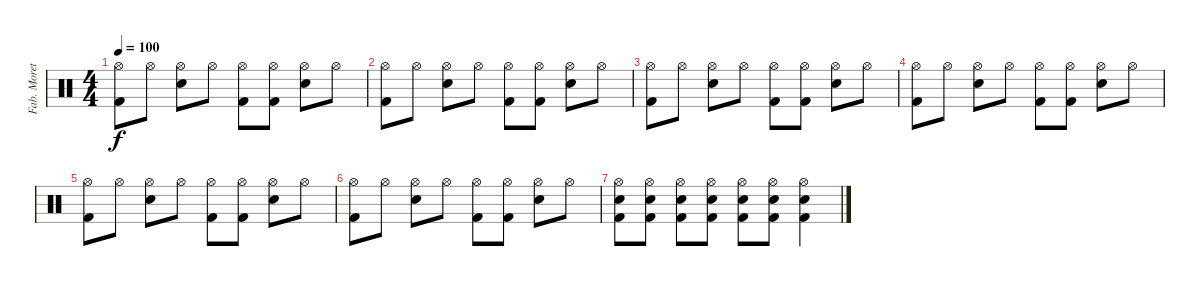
\track ("Fab. Moretti" "Fab. Moret") {instrument percussion}
\staff {score}
\articulation defaults
\ts (4 4)
\tempo 100
\clef neutral
\ks c
("Hi-Hat (open)" "Kick (hit) 2").8{dy f} "Hi-Hat (open)".8 ("Hi-Hat (open)" "Electric Snare (hit)").8 "Hi-Hat (open)".8 ("Hi-Hat (open)" "Kick (hit) 2").8 ("Hi-Hat (open)" "Kick (hit) 2").8 ("Hi-Hat (open)" "Electric Snare (hit)").8 "Hi-Hat (open)".8 |
("Hi-Hat (open)" "Kick (hit) 2").8 "Hi-Hat (open)".8 ("Hi-Hat (open)" "Electric Snare (hit)").8 "Hi-Hat (open)".8 ("Hi-Hat (open)" "Kick (hit) 2").8 ("Hi-Hat (open)" "Kick (hit) 2").8 ("Hi-Hat (open)" "Electric Snare (hit)").8 "Hi-Hat (open)".8 |
("Hi-Hat (open)" "Kick (hit) 2").8 "Hi-Hat (open)".8 ("Hi-Hat (open)" "Electric Snare (hit)").8 "Hi-Hat (open)".8 ("Hi-Hat (open)" "Kick (hit) 2").8 ("Hi-Hat (open)" "Kick (hit) 2").8 ("Hi-Hat (open)" "Electric Snare (hit)").8 "Hi-Hat (open)".8 |
("Hi-Hat (open)" "Kick (hit) 2").8 "Hi-Hat (open)".8 ("Hi-Hat (open)" "Electric Snare (hit)").8 "Hi-Hat (open)".8 ("Hi-Hat (open)" "Kick (hit) 2").8 ("Hi-Hat (open)" "Kick (hit) 2").8 ("Hi-Hat (open)" "Electric Snare (hit)").8 "Hi-Hat (open)".8 |
("Hi-Hat (open)" "Kick (hit) 2").8 "Hi-Hat (open)".8 ("Hi-Hat (open)" "Electric Snare (hit)").8 "Hi-Hat (open)".8 ("Hi-Hat (open)" "Kick (hit) 2").8 ("Hi-Hat (open)" "Kick (hit) 2").8 ("Hi-Hat (open)" "Electric Snare (hit)").8 "Hi-Hat (open)".8 |
("Hi-Hat (open)" "Kick (hit) 2").8 "Hi-Hat (open)".8 ("Hi-Hat (open)" "Electric Snare (hit)").8 "Hi-Hat (open)".8 ("Hi-Hat (open)" "Kick (hit) 2").8 ("Hi-Hat (open)" "Kick (hit) 2").8 ("Hi-Hat (open)" "Electric Snare (hit)").8 "Hi-Hat (open)".8 |
("Hi-Hat (open)" "Electric Snare (hit)" "Kick (hit) 2").8 ("Hi-Hat (open)" "Electric Snare (hit)" "Kick (hit) 2").8 ("Hi-Hat (open)" "Electric Snare (hit)" "Kick (hit) 2").8 ("Hi-Hat (open)" "Electric Snare (hit)" "Kick (hit) 2").8 ("Hi-Hat (open)" "Electric Snare (hit)" "Kick (hit) 2").8 ("Hi-Hat (open)" "Electric Snare (hit)" "Kick (hit) 2").8 ("Hi-Hat (open)" "Electric Snare (hit)" "Kick (hit) 2").4
